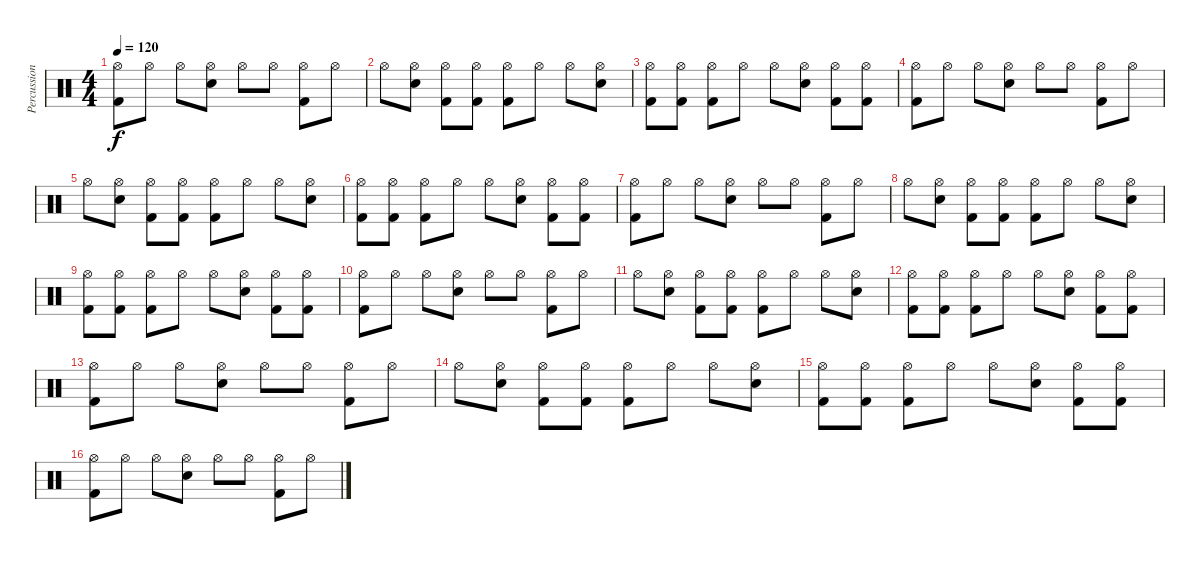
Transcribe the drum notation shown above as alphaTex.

\track ("Percussion" "Percussion") {instrument percussion}
\staff {score}
\articulation defaults
\ts (4 4)
\tempo 120
\clef neutral
\ks c
("Hi-Hat (open)" "Kick (hit) 2").8{dy f} "Hi-Hat (open)".8 "Hi-Hat (open)".8 ("Hi-Hat (open)" "Electric Snare (hit)").8 "Hi-Hat (open)".8 "Hi-Hat (open)".8 ("Hi-Hat (open)" "Kick (hit) 2").8 "Hi-Hat (open)".8 |
"Hi-Hat (open)".8 ("Hi-Hat (open)" "Electric Snare (hit)").8 ("Hi-Hat (open)" "Kick (hit) 2").8 ("Hi-Hat (open)" "Kick (hit) 2").8 ("Hi-Hat (open)" "Kick (hit) 2").8 "Hi-Hat (open)".8 "Hi-Hat (open)".8 ("Hi-Hat (open)" "Electric Snare (hit)").8 |
("Hi-Hat (open)" "Kick (hit) 2").8 ("Hi-Hat (open)" "Kick (hit) 2").8 ("Hi-Hat (open)" "Kick (hit) 2").8 "Hi-Hat (open)".8 "Hi-Hat (open)".8 ("Hi-Hat (open)" "Electric Snare (hit)").8 ("Hi-Hat (open)" "Kick (hit) 2").8 ("Hi-Hat (open)" "Kick (hit) 2").8 |
("Hi-Hat (open)" "Kick (hit) 2").8 "Hi-Hat (open)".8 "Hi-Hat (open)".8 ("Hi-Hat (open)" "Electric Snare (hit)").8 "Hi-Hat (open)".8 "Hi-Hat (open)".8 ("Hi-Hat (open)" "Kick (hit) 2").8 "Hi-Hat (open)".8 |
"Hi-Hat (open)".8 ("Hi-Hat (open)" "Electric Snare (hit)").8 ("Hi-Hat (open)" "Kick (hit) 2").8 ("Hi-Hat (open)" "Kick (hit) 2").8 ("Hi-Hat (open)" "Kick (hit) 2").8 "Hi-Hat (open)".8 "Hi-Hat (open)".8 ("Hi-Hat (open)" "Electric Snare (hit)").8 |
("Hi-Hat (open)" "Kick (hit) 2").8 ("Hi-Hat (open)" "Kick (hit) 2").8 ("Hi-Hat (open)" "Kick (hit) 2").8 "Hi-Hat (open)".8 "Hi-Hat (open)".8 ("Hi-Hat (open)" "Electric Snare (hit)").8 ("Hi-Hat (open)" "Kick (hit) 2").8 ("Hi-Hat (open)" "Kick (hit) 2").8 |
("Hi-Hat (open)" "Kick (hit) 2").8 "Hi-Hat (open)".8 "Hi-Hat (open)".8 ("Hi-Hat (open)" "Electric Snare (hit)").8 "Hi-Hat (open)".8 "Hi-Hat (open)".8 ("Hi-Hat (open)" "Kick (hit) 2").8 "Hi-Hat (open)".8 |
"Hi-Hat (open)".8 ("Hi-Hat (open)" "Electric Snare (hit)").8 ("Hi-Hat (open)" "Kick (hit) 2").8 ("Hi-Hat (open)" "Kick (hit) 2").8 ("Hi-Hat (open)" "Kick (hit) 2").8 "Hi-Hat (open)".8 "Hi-Hat (open)".8 ("Hi-Hat (open)" "Electric Snare (hit)").8 |
("Hi-Hat (open)" "Kick (hit) 2").8 ("Hi-Hat (open)" "Kick (hit) 2").8 ("Hi-Hat (open)" "Kick (hit) 2").8 "Hi-Hat (open)".8 "Hi-Hat (open)".8 ("Hi-Hat (open)" "Electric Snare (hit)").8 ("Hi-Hat (open)" "Kick (hit) 2").8 ("Hi-Hat (open)" "Kick (hit) 2").8 |
("Hi-Hat (open)" "Kick (hit) 2").8 "Hi-Hat (open)".8 "Hi-Hat (open)".8 ("Hi-Hat (open)" "Electric Snare (hit)").8 "Hi-Hat (open)".8 "Hi-Hat (open)".8 ("Hi-Hat (open)" "Kick (hit) 2").8 "Hi-Hat (open)".8 |
"Hi-Hat (open)".8 ("Hi-Hat (open)" "Electric Snare (hit)").8 ("Hi-Hat (open)" "Kick (hit) 2").8 ("Hi-Hat (open)" "Kick (hit) 2").8 ("Hi-Hat (open)" "Kick (hit) 2").8 "Hi-Hat (open)".8 "Hi-Hat (open)".8 ("Hi-Hat (open)" "Electric Snare (hit)").8 |
("Hi-Hat (open)" "Kick (hit) 2").8 ("Hi-Hat (open)" "Kick (hit) 2").8 ("Hi-Hat (open)" "Kick (hit) 2").8 "Hi-Hat (open)".8 "Hi-Hat (open)".8 ("Hi-Hat (open)" "Electric Snare (hit)").8 ("Hi-Hat (open)" "Kick (hit) 2").8 ("Hi-Hat (open)" "Kick (hit) 2").8 |
("Hi-Hat (open)" "Kick (hit) 2").8 "Hi-Hat (open)".8 "Hi-Hat (open)".8 ("Hi-Hat (open)" "Electric Snare (hit)").8 "Hi-Hat (open)".8 "Hi-Hat (open)".8 ("Hi-Hat (open)" "Kick (hit) 2").8 "Hi-Hat (open)".8 |
"Hi-Hat (open)".8 ("Hi-Hat (open)" "Electric Snare (hit)").8 ("Hi-Hat (open)" "Kick (hit) 2").8 ("Hi-Hat (open)" "Kick (hit) 2").8 ("Hi-Hat (open)" "Kick (hit) 2").8 "Hi-Hat (open)".8 "Hi-Hat (open)".8 ("Hi-Hat (open)" "Electric Snare (hit)").8 |
("Hi-Hat (open)" "Kick (hit) 2").8 ("Hi-Hat (open)" "Kick (hit) 2").8 ("Hi-Hat (open)" "Kick (hit) 2").8 "Hi-Hat (open)".8 "Hi-Hat (open)".8 ("Hi-Hat (open)" "Electric Snare (hit)").8 ("Hi-Hat (open)" "Kick (hit) 2").8 ("Hi-Hat (open)" "Kick (hit) 2").8 |
("Hi-Hat (open)" "Kick (hit) 2").8 "Hi-Hat (open)".8 "Hi-Hat (open)".8 ("Hi-Hat (open)" "Electric Snare (hit)").8 "Hi-Hat (open)".8 "Hi-Hat (open)".8 ("Hi-Hat (open)" "Kick (hit) 2").8 "Hi-Hat (open)".8
